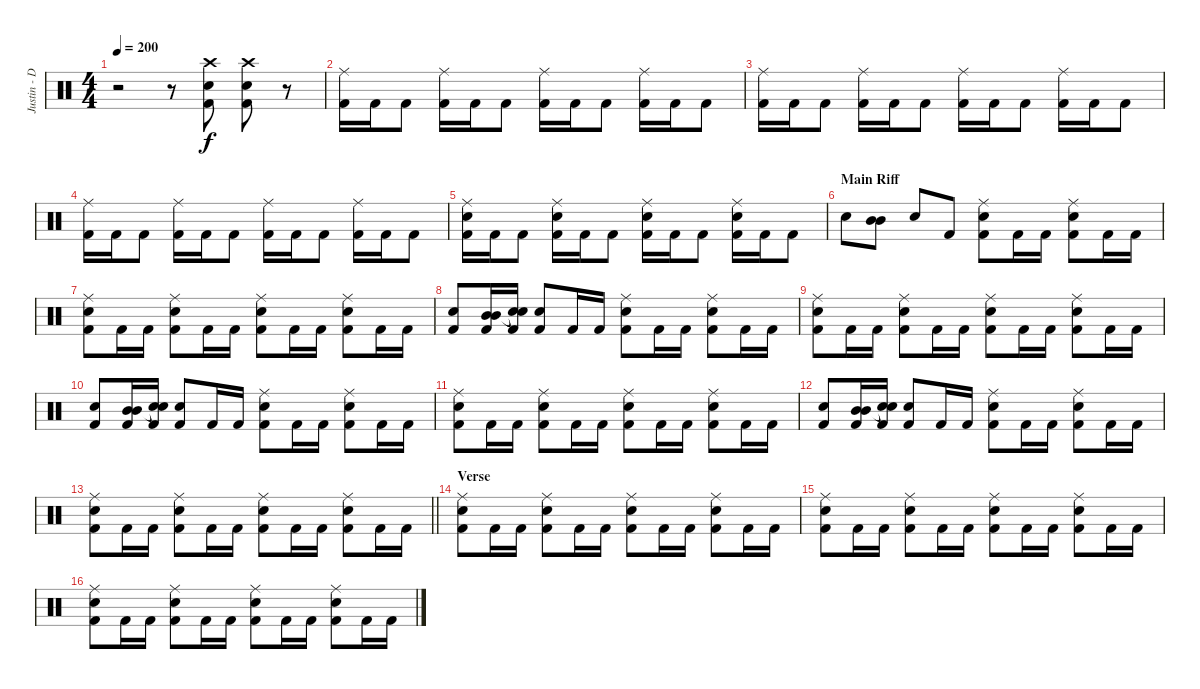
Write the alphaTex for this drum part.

\track ("Justin - Drums" "Justin - D") {instrument percussion}
\staff {score}
\articulation defaults
\ts (4 4)
\tempo 200
\clef neutral
\ks c
r.2{dy f} r.8 ("Crash high (hit)" "Snare (hit) 2" "Kick (hit) 2").8 ("Crash high (hit)" "Snare (hit) 2" "Kick (hit) 2").8 r.8 |
("Ride (middle)" "Kick (hit) 2").16 "Kick (hit) 2".16 "Kick (hit) 2".8 ("Ride (middle)" "Kick (hit) 2").16 "Kick (hit) 2".16 "Kick (hit) 2".8 ("Ride (middle)" "Kick (hit) 2").16 "Kick (hit) 2".16 "Kick (hit) 2".8 ("Ride (middle)" "Kick (hit) 2").16 "Kick (hit) 2".16 "Kick (hit) 2".8 |
("Ride (middle)" "Kick (hit) 2").16 "Kick (hit) 2".16 "Kick (hit) 2".8 ("Ride (middle)" "Kick (hit) 2").16 "Kick (hit) 2".16 "Kick (hit) 2".8 ("Ride (middle)" "Kick (hit) 2").16 "Kick (hit) 2".16 "Kick (hit) 2".8 ("Ride (middle)" "Kick (hit) 2").16 "Kick (hit) 2".16 "Kick (hit) 2".8 |
("Ride (middle)" "Kick (hit) 2").16 "Kick (hit) 2".16 "Kick (hit) 2".8 ("Ride (middle)" "Kick (hit) 2").16 "Kick (hit) 2".16 "Kick (hit) 2".8 ("Ride (middle)" "Kick (hit) 2").16 "Kick (hit) 2".16 "Kick (hit) 2".8 ("Ride (middle)" "Kick (hit) 2").16 "Kick (hit) 2".16 "Kick (hit) 2".8 |
("Ride (middle)" "Snare (hit) 2" "Kick (hit) 2").16 "Kick (hit) 2".16 "Kick (hit) 2".8 ("Ride (middle)" "Snare (hit) 2" "Kick (hit) 2").16 "Kick (hit) 2".16 "Kick (hit) 2".8 ("Ride (middle)" "Snare (hit) 2" "Kick (hit) 2").16 "Kick (hit) 2".16 "Kick (hit) 2".8 ("Ride (middle)" "Snare (hit) 2" "Kick (hit) 2").16 "Kick (hit) 2".16 "Kick (hit) 2".8 |
\section ("" "Main Riff")
"Snare (hit) 2".8 ("Mid Tom (hit)" "Mid Tom (hit)").8 "Snare (hit) 2".8 "Kick (hit) 2".8 ("Ride (middle)" "Snare (hit) 2" "Kick (hit) 2").8 "Kick (hit) 2".16 "Kick (hit) 2".16 ("Ride (middle)" "Snare (hit) 2" "Kick (hit) 2").8 "Kick (hit) 2".16 "Kick (hit) 2".16 |
("Ride (middle)" "Snare (hit) 2" "Kick (hit) 2").8 "Kick (hit) 2".16 "Kick (hit) 2".16 ("Ride (middle)" "Snare (hit) 2" "Kick (hit) 2").8 "Kick (hit) 2".16 "Kick (hit) 2".16 ("Ride (middle)" "Snare (hit) 2" "Kick (hit) 2").8 "Kick (hit) 2".16 "Kick (hit) 2".16 ("Ride (middle)" "Snare (hit) 2" "Kick (hit) 2").8 "Kick (hit) 2".16 "Kick (hit) 2".16 |
("Snare (hit) 2" "Kick (hit) 2").8 ("Mid Tom (hit)" "Mid Tom (hit)" "Kick (hit) 2").16 ("Snare (hit)"{t} "Snare (hit)"{t} "Kick (hit) 2").16 ("Snare (hit) 2" "Kick (hit) 2").8 "Kick (hit) 2".16 "Kick (hit) 2".16 ("Ride (middle)" "Snare (hit) 2" "Kick (hit) 2").8 "Kick (hit) 2".16 "Kick (hit) 2".16 ("Ride (middle)" "Snare (hit) 2" "Kick (hit) 2").8 "Kick (hit) 2".16 "Kick (hit) 2".16 |
("Ride (middle)" "Snare (hit) 2" "Kick (hit) 2").8 "Kick (hit) 2".16 "Kick (hit) 2".16 ("Ride (middle)" "Snare (hit) 2" "Kick (hit) 2").8 "Kick (hit) 2".16 "Kick (hit) 2".16 ("Ride (middle)" "Snare (hit) 2" "Kick (hit) 2").8 "Kick (hit) 2".16 "Kick (hit) 2".16 ("Ride (middle)" "Snare (hit) 2" "Kick (hit) 2").8 "Kick (hit) 2".16 "Kick (hit) 2".16 |
("Snare (hit) 2" "Kick (hit) 2").8 ("Mid Tom (hit)" "Mid Tom (hit)" "Kick (hit) 2").16 ("Snare (hit)"{t} "Snare (hit)"{t} "Kick (hit) 2").16 ("Snare (hit) 2" "Kick (hit) 2").8 "Kick (hit) 2".16 "Kick (hit) 2".16 ("Ride (middle)" "Snare (hit) 2" "Kick (hit) 2").8 "Kick (hit) 2".16 "Kick (hit) 2".16 ("Ride (middle)" "Snare (hit) 2" "Kick (hit) 2").8 "Kick (hit) 2".16 "Kick (hit) 2".16 |
("Ride (middle)" "Snare (hit) 2" "Kick (hit) 2").8 "Kick (hit) 2".16 "Kick (hit) 2".16 ("Ride (middle)" "Snare (hit) 2" "Kick (hit) 2").8 "Kick (hit) 2".16 "Kick (hit) 2".16 ("Ride (middle)" "Snare (hit) 2" "Kick (hit) 2").8 "Kick (hit) 2".16 "Kick (hit) 2".16 ("Ride (middle)" "Snare (hit) 2" "Kick (hit) 2").8 "Kick (hit) 2".16 "Kick (hit) 2".16 |
("Snare (hit) 2" "Kick (hit) 2").8 ("Mid Tom (hit)" "Mid Tom (hit)" "Kick (hit) 2").16 ("Snare (hit)"{t} "Snare (hit)"{t} "Kick (hit) 2").16 ("Snare (hit) 2" "Kick (hit) 2").8 "Kick (hit) 2".16 "Kick (hit) 2".16 ("Ride (middle)" "Snare (hit) 2" "Kick (hit) 2").8 "Kick (hit) 2".16 "Kick (hit) 2".16 ("Ride (middle)" "Snare (hit) 2" "Kick (hit) 2").8 "Kick (hit) 2".16 "Kick (hit) 2".16 |
\barLineRight lightlight
("Ride (middle)" "Snare (hit) 2" "Kick (hit) 2").8 "Kick (hit) 2".16 "Kick (hit) 2".16 ("Ride (middle)" "Snare (hit) 2" "Kick (hit) 2").8 "Kick (hit) 2".16 "Kick (hit) 2".16 ("Ride (middle)" "Snare (hit) 2" "Kick (hit) 2").8 "Kick (hit) 2".16 "Kick (hit) 2".16 ("Ride (middle)" "Snare (hit) 2" "Kick (hit) 2").8 "Kick (hit) 2".16 "Kick (hit) 2".16 |
\section ("" "Verse")
("Ride (middle)" "Snare (hit) 2" "Kick (hit) 2").8 "Kick (hit) 2".16 "Kick (hit) 2".16 ("Ride (middle)" "Snare (hit) 2" "Kick (hit) 2").8 "Kick (hit) 2".16 "Kick (hit) 2".16 ("Ride (middle)" "Snare (hit) 2" "Kick (hit) 2").8 "Kick (hit) 2".16 "Kick (hit) 2".16 ("Ride (middle)" "Snare (hit) 2" "Kick (hit) 2").8 "Kick (hit) 2".16 "Kick (hit) 2".16 |
("Ride (middle)" "Snare (hit) 2" "Kick (hit) 2").8 "Kick (hit) 2".16 "Kick (hit) 2".16 ("Ride (middle)" "Snare (hit) 2" "Kick (hit) 2").8 "Kick (hit) 2".16 "Kick (hit) 2".16 ("Ride (middle)" "Snare (hit) 2" "Kick (hit) 2").8 "Kick (hit) 2".16 "Kick (hit) 2".16 ("Ride (middle)" "Snare (hit) 2" "Kick (hit) 2").8 "Kick (hit) 2".16 "Kick (hit) 2".16 |
("Ride (middle)" "Snare (hit) 2" "Kick (hit) 2").8 "Kick (hit) 2".16 "Kick (hit) 2".16 ("Ride (middle)" "Snare (hit) 2" "Kick (hit) 2").8 "Kick (hit) 2".16 "Kick (hit) 2".16 ("Ride (middle)" "Snare (hit) 2" "Kick (hit) 2").8 "Kick (hit) 2".16 "Kick (hit) 2".16 ("Ride (middle)" "Snare (hit) 2" "Kick (hit) 2").8 "Kick (hit) 2".16 "Kick (hit) 2".16
